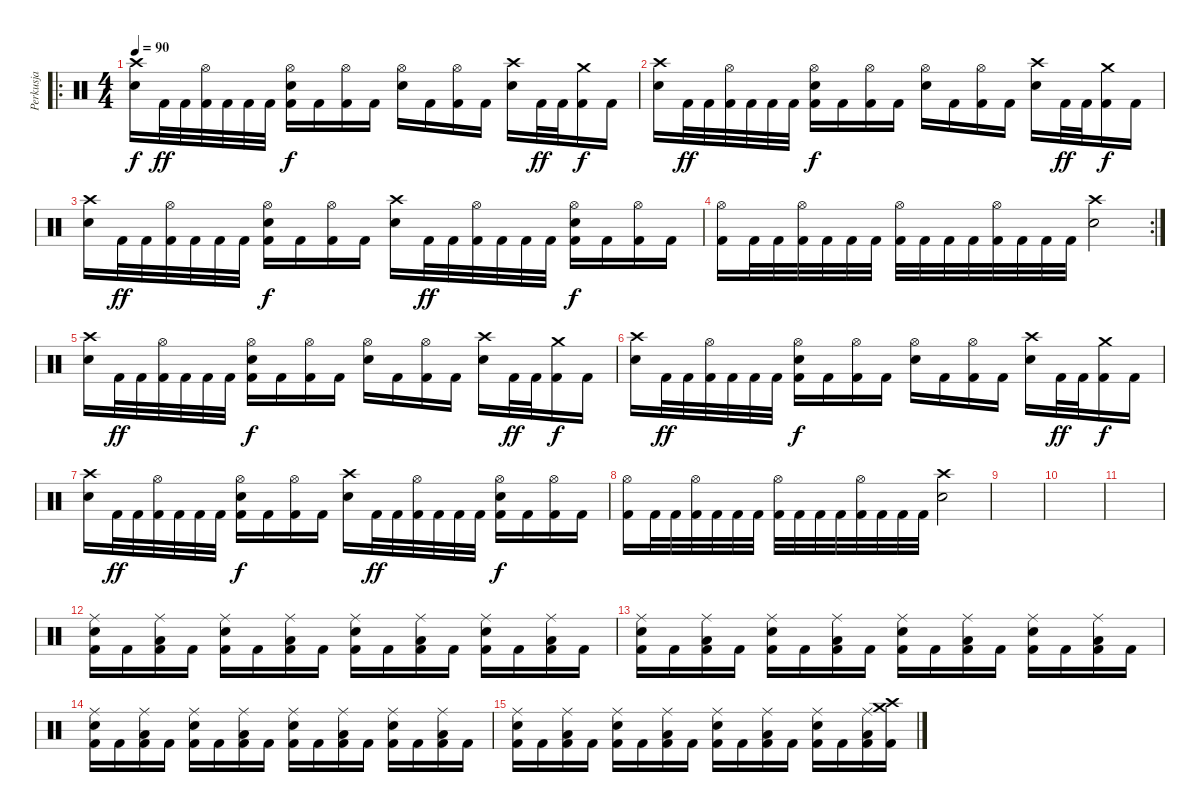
\track ("Perkusja" "Perkusja") {instrument percussion}
\staff {score}
\articulation defaults
\ro
\ts (4 4)
\tempo 90
\clef neutral
\ks c
("Crash high (hit)" "Electric Snare (hit)").16{dy f} "Kick (hit) 2".32{dy ff} "Kick (hit) 2".32 ("Hi-Hat (open)" "Kick (hit) 2").32 "Kick (hit) 2".32 "Kick (hit) 2".32 "Kick (hit) 2".32 ("Hi-Hat (open)" "Electric Snare (hit)" "Kick (hit) 2").16{dy f} "Kick (hit) 2".16 ("Hi-Hat (open)" "Kick (hit) 2").16 "Kick (hit) 2".16 ("Hi-Hat (open)" "Electric Snare (hit)").16 "Kick (hit) 2".16 ("Hi-Hat (open)" "Kick (hit) 2").16 "Kick (hit) 2".16 ("Crash high (hit)" "Electric Snare (hit)").16 "Kick (hit) 2".32{dy ff} "Kick (hit) 2".32 ("Crash medium (hit)" "Kick (hit) 2").16{dy f} "Kick (hit) 2".16 |
("Crash high (hit)" "Electric Snare (hit)").16 "Kick (hit) 2".32{dy ff} "Kick (hit) 2".32 ("Hi-Hat (open)" "Kick (hit) 2").32 "Kick (hit) 2".32 "Kick (hit) 2".32 "Kick (hit) 2".32 ("Hi-Hat (open)" "Electric Snare (hit)" "Kick (hit) 2").16{dy f} "Kick (hit) 2".16 ("Hi-Hat (open)" "Kick (hit) 2").16 "Kick (hit) 2".16 ("Hi-Hat (open)" "Electric Snare (hit)").16 "Kick (hit) 2".16 ("Hi-Hat (open)" "Kick (hit) 2").16 "Kick (hit) 2".16 ("Crash high (hit)" "Electric Snare (hit)").16 "Kick (hit) 2".32{dy ff} "Kick (hit) 2".32 ("Crash medium (hit)" "Kick (hit) 2").16{dy f} "Kick (hit) 2".16 |
("Crash high (hit)" "Electric Snare (hit)").16 "Kick (hit) 2".32{dy ff} "Kick (hit) 2".32 ("Hi-Hat (open)" "Kick (hit) 2").32 "Kick (hit) 2".32 "Kick (hit) 2".32 "Kick (hit) 2".32 ("Hi-Hat (open)" "Electric Snare (hit)" "Kick (hit) 2").16{dy f} "Kick (hit) 2".16 ("Hi-Hat (open)" "Kick (hit) 2").16 "Kick (hit) 2".16 ("Crash high (hit)" "Electric Snare (hit)").16 "Kick (hit) 2".32{dy ff} "Kick (hit) 2".32 ("Hi-Hat (open)" "Kick (hit) 2").32 "Kick (hit) 2".32 "Kick (hit) 2".32 "Kick (hit) 2".32 ("Hi-Hat (open)" "Electric Snare (hit)" "Kick (hit) 2").16{dy f} "Kick (hit) 2".16 ("Hi-Hat (open)" "Kick (hit) 2").16 "Kick (hit) 2".16 |
\rc 2
("Hi-Hat (open)" "Kick (hit) 2").16 "Kick (hit) 2".32 "Kick (hit) 2".32 ("Hi-Hat (open)" "Kick (hit) 2").32 "Kick (hit) 2".32 "Kick (hit) 2".32 "Kick (hit) 2".32 ("Hi-Hat (open)" "Kick (hit) 2").32 "Kick (hit) 2".32 "Kick (hit) 2".32 "Kick (hit) 2".32 ("Hi-Hat (open)" "Kick (hit) 2").32 "Kick (hit) 2".32 "Kick (hit) 2".32 "Kick (hit) 2".32 ("Crash high (hit)" "Electric Snare (hit)").2 |
("Crash high (hit)" "Electric Snare (hit)").16 "Kick (hit) 2".32{dy ff} "Kick (hit) 2".32 ("Hi-Hat (open)" "Kick (hit) 2").32 "Kick (hit) 2".32 "Kick (hit) 2".32 "Kick (hit) 2".32 ("Hi-Hat (open)" "Electric Snare (hit)" "Kick (hit) 2").16{dy f} "Kick (hit) 2".16 ("Hi-Hat (open)" "Kick (hit) 2").16 "Kick (hit) 2".16 ("Hi-Hat (open)" "Electric Snare (hit)").16 "Kick (hit) 2".16 ("Hi-Hat (open)" "Kick (hit) 2").16 "Kick (hit) 2".16 ("Crash high (hit)" "Electric Snare (hit)").16 "Kick (hit) 2".32{dy ff} "Kick (hit) 2".32 ("Crash medium (hit)" "Kick (hit) 2").16{dy f} "Kick (hit) 2".16 |
("Crash high (hit)" "Electric Snare (hit)").16 "Kick (hit) 2".32{dy ff} "Kick (hit) 2".32 ("Hi-Hat (open)" "Kick (hit) 2").32 "Kick (hit) 2".32 "Kick (hit) 2".32 "Kick (hit) 2".32 ("Hi-Hat (open)" "Electric Snare (hit)" "Kick (hit) 2").16{dy f} "Kick (hit) 2".16 ("Hi-Hat (open)" "Kick (hit) 2").16 "Kick (hit) 2".16 ("Hi-Hat (open)" "Electric Snare (hit)").16 "Kick (hit) 2".16 ("Hi-Hat (open)" "Kick (hit) 2").16 "Kick (hit) 2".16 ("Crash high (hit)" "Electric Snare (hit)").16 "Kick (hit) 2".32{dy ff} "Kick (hit) 2".32 ("Crash medium (hit)" "Kick (hit) 2").16{dy f} "Kick (hit) 2".16 |
("Crash high (hit)" "Electric Snare (hit)").16 "Kick (hit) 2".32{dy ff} "Kick (hit) 2".32 ("Hi-Hat (open)" "Kick (hit) 2").32 "Kick (hit) 2".32 "Kick (hit) 2".32 "Kick (hit) 2".32 ("Hi-Hat (open)" "Electric Snare (hit)" "Kick (hit) 2").16{dy f} "Kick (hit) 2".16 ("Hi-Hat (open)" "Kick (hit) 2").16 "Kick (hit) 2".16 ("Crash high (hit)" "Electric Snare (hit)").16 "Kick (hit) 2".32{dy ff} "Kick (hit) 2".32 ("Hi-Hat (open)" "Kick (hit) 2").32 "Kick (hit) 2".32 "Kick (hit) 2".32 "Kick (hit) 2".32 ("Hi-Hat (open)" "Electric Snare (hit)" "Kick (hit) 2").16{dy f} "Kick (hit) 2".16 ("Hi-Hat (open)" "Kick (hit) 2").16 "Kick (hit) 2".16 |
("Hi-Hat (open)" "Kick (hit) 2").16 "Kick (hit) 2".32 "Kick (hit) 2".32 ("Hi-Hat (open)" "Kick (hit) 2").32 "Kick (hit) 2".32 "Kick (hit) 2".32 "Kick (hit) 2".32 ("Hi-Hat (open)" "Kick (hit) 2").32 "Kick (hit) 2".32 "Kick (hit) 2".32 "Kick (hit) 2".32 ("Hi-Hat (open)" "Kick (hit) 2").32 "Kick (hit) 2".32 "Kick (hit) 2".32 "Kick (hit) 2".32 ("Crash high (hit)" "Electric Snare (hit)").2 |
|
|
|
("Kick (hit) 2" "Snare (hit) 2" "Ride (middle)").16 "Kick (hit) 2".16 ("Kick (hit) 2" "Low Tom (hit)" "Ride (middle)").16 "Kick (hit) 2".16 ("Kick (hit) 2" "Snare (hit) 2" "Ride (middle)").16 "Kick (hit) 2".16 ("Kick (hit) 2" "Low Tom (hit)" "Ride (middle)").16 "Kick (hit) 2".16 ("Kick (hit) 2" "Snare (hit) 2" "Ride (middle)").16 "Kick (hit) 2".16 ("Kick (hit) 2" "Low Tom (hit)" "Ride (middle)").16 "Kick (hit) 2".16 ("Kick (hit) 2" "Snare (hit) 2" "Ride (middle)").16 "Kick (hit) 2".16 ("Kick (hit) 2" "Low Tom (hit)" "Ride (middle)").16 "Kick (hit) 2".16 |
("Kick (hit) 2" "Snare (hit) 2" "Ride (middle)").16 "Kick (hit) 2".16 ("Kick (hit) 2" "Low Tom (hit)" "Ride (middle)").16 "Kick (hit) 2".16 ("Kick (hit) 2" "Snare (hit) 2" "Ride (middle)").16 "Kick (hit) 2".16 ("Kick (hit) 2" "Low Tom (hit)" "Ride (middle)").16 "Kick (hit) 2".16 ("Kick (hit) 2" "Snare (hit) 2" "Ride (middle)").16 "Kick (hit) 2".16 ("Kick (hit) 2" "Low Tom (hit)" "Ride (middle)").16 "Kick (hit) 2".16 ("Kick (hit) 2" "Snare (hit) 2" "Ride (middle)").16 "Kick (hit) 2".16 ("Kick (hit) 2" "Low Tom (hit)" "Ride (middle)").16 "Kick (hit) 2".16 |
("Kick (hit) 2" "Snare (hit) 2" "Ride (middle)").16 "Kick (hit) 2".16 ("Kick (hit) 2" "Low Tom (hit)" "Ride (middle)").16 "Kick (hit) 2".16 ("Kick (hit) 2" "Snare (hit) 2" "Ride (middle)").16 "Kick (hit) 2".16 ("Kick (hit) 2" "Low Tom (hit)" "Ride (middle)").16 "Kick (hit) 2".16 ("Kick (hit) 2" "Snare (hit) 2" "Ride (middle)").16 "Kick (hit) 2".16 ("Kick (hit) 2" "Low Tom (hit)" "Ride (middle)").16 "Kick (hit) 2".16 ("Kick (hit) 2" "Snare (hit) 2" "Ride (middle)").16 "Kick (hit) 2".16 ("Kick (hit) 2" "Low Tom (hit)" "Ride (middle)").16 "Kick (hit) 2".16 |
("Kick (hit) 2" "Snare (hit) 2" "Ride (middle)").16 "Kick (hit) 2".16 ("Kick (hit) 2" "Low Tom (hit)" "Ride (middle)").16 "Kick (hit) 2".16 ("Kick (hit) 2" "Snare (hit) 2" "Ride (middle)").16 "Kick (hit) 2".16 ("Kick (hit) 2" "Low Tom (hit)" "Ride (middle)").16 "Kick (hit) 2".16 ("Kick (hit) 2" "Snare (hit) 2" "Ride (middle)").16 "Kick (hit) 2".16 ("Kick (hit) 2" "Low Tom (hit)" "Ride (middle)").16 "Kick (hit) 2".16 ("Kick (hit) 2" "Snare (hit) 2" "Ride (middle)").16 "Kick (hit) 2".16 ("Kick (hit) 2" "Low Tom (hit)" "Ride (middle)").16 ("Kick (hit) 2" "Crash medium (hit)" "Crash high (hit)").16
